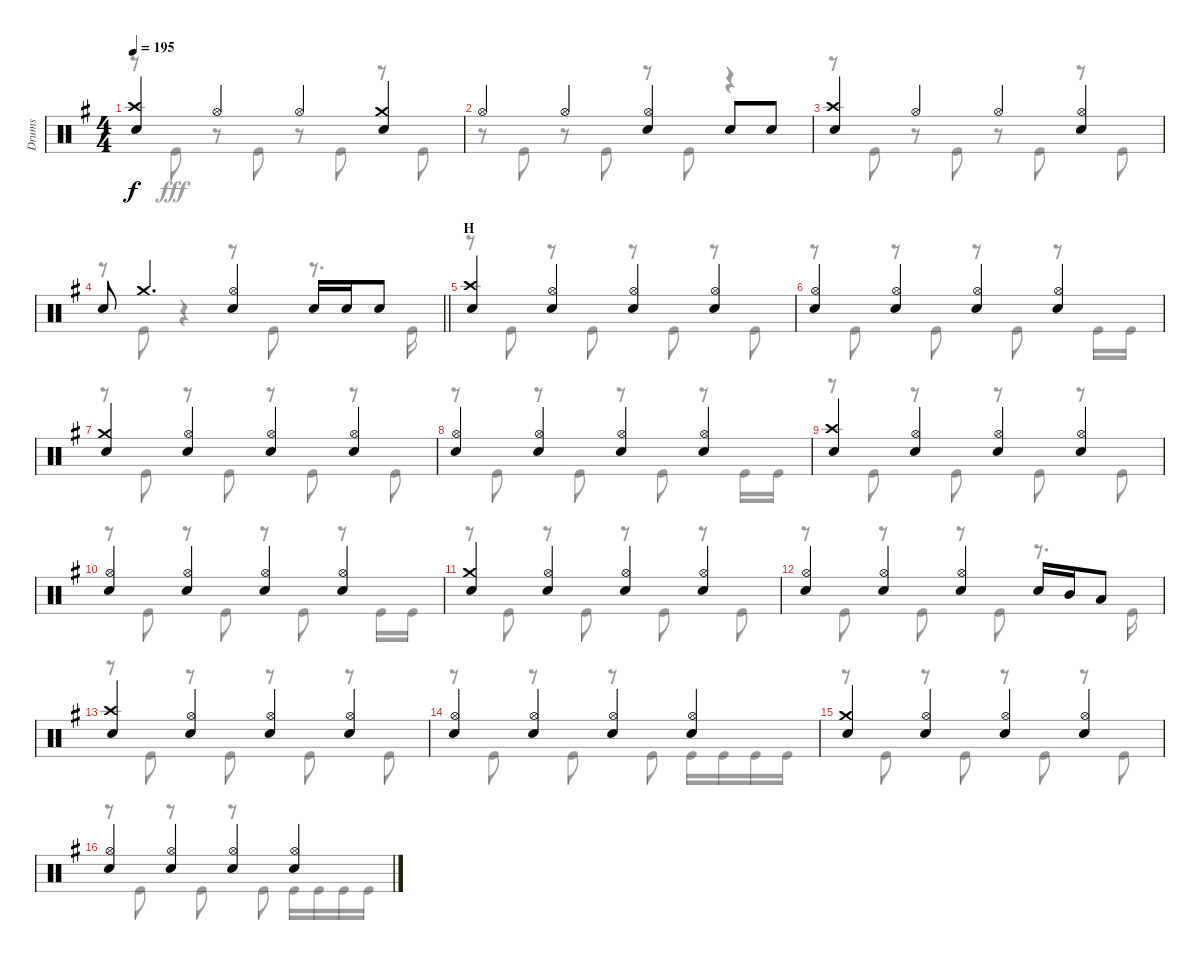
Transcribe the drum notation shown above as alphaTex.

\track ("Drums" "Drums") {instrument percussion}
\staff {score}
\articulation defaults
\voice
\ts (4 4)
\tempo 195
\clef neutral
\ks g
("Crash high (hit)" "Snare (hit) 2").4{dy f} "Hi-Hat (open)".4 "Hi-Hat (open)".4 ("Crash medium (hit)" "Snare (hit) 2").4 |
"Hi-Hat (open)".4 "Hi-Hat (open)".4 ("Hi-Hat (open)" "Snare (hit) 2").4 "Snare (hit) 2".8 "Snare (hit) 2".8 |
("Crash high (hit)" "Snare (hit) 2").4 "Hi-Hat (open)".4 "Hi-Hat (open)".4 ("Hi-Hat (open)" "Snare (hit) 2").4 |
\barLineRight lightlight "Snare (hit) 2".8 "Crash medium (hit)".4{d}
("Hi-Hat (open)" "Snare (hit) 2").4 "Snare (hit) 2".16 "Snare (hit) 2".16 "Snare (hit) 2".8 |
\section ("" "H")
("Crash high (hit)" "Snare (hit) 2").4 ("Hi-Hat (open)" "Snare (hit) 2").4 ("Hi-Hat (open)" "Snare (hit) 2").4 ("Hi-Hat (open)" "Snare (hit) 2").4 |
("Hi-Hat (open)" "Snare (hit) 2").4 ("Hi-Hat (open)" "Snare (hit) 2").4 ("Hi-Hat (open)" "Snare (hit) 2").4 ("Hi-Hat (open)" "Snare (hit) 2").4 |
("Crash medium (hit)" "Snare (hit) 2").4 ("Hi-Hat (open)" "Snare (hit) 2").4 ("Hi-Hat (open)" "Snare (hit) 2").4 ("Hi-Hat (open)" "Snare (hit) 2").4 |
("Hi-Hat (open)" "Snare (hit) 2").4 ("Hi-Hat (open)" "Snare (hit) 2").4 ("Hi-Hat (open)" "Snare (hit) 2").4 ("Hi-Hat (open)" "Snare (hit) 2").4 |
("Crash high (hit)" "Snare (hit) 2").4 ("Hi-Hat (open)" "Snare (hit) 2").4 ("Hi-Hat (open)" "Snare (hit) 2").4 ("Hi-Hat (open)" "Snare (hit) 2").4 |
("Hi-Hat (open)" "Snare (hit) 2").4 ("Hi-Hat (open)" "Snare (hit) 2").4 ("Hi-Hat (open)" "Snare (hit) 2").4 ("Hi-Hat (open)" "Snare (hit) 2").4 |
("Crash medium (hit)" "Snare (hit) 2").4 ("Hi-Hat (open)" "Snare (hit) 2").4 ("Hi-Hat (open)" "Snare (hit) 2").4 ("Hi-Hat (open)" "Snare (hit) 2").4 |
("Hi-Hat (open)" "Snare (hit) 2").4 ("Hi-Hat (open)" "Snare (hit) 2").4 ("Hi-Hat (open)" "Snare (hit) 2").4 "Snare (hit) 2".16 "Mid Tom (hit)".16 "Low Tom (hit)".8 |
("Crash high (hit)" "Snare (hit) 2").4 ("Hi-Hat (open)" "Snare (hit) 2").4 ("Hi-Hat (open)" "Snare (hit) 2").4 ("Hi-Hat (open)" "Snare (hit) 2").4 |
("Hi-Hat (open)" "Snare (hit) 2").4 ("Hi-Hat (open)" "Snare (hit) 2").4 ("Hi-Hat (open)" "Snare (hit) 2").4 ("Hi-Hat (open)" "Snare (hit) 2").4 |
("Crash medium (hit)" "Snare (hit) 2").4 ("Hi-Hat (open)" "Snare (hit) 2").4 ("Hi-Hat (open)" "Snare (hit) 2").4 ("Hi-Hat (open)" "Snare (hit) 2").4 |
("Hi-Hat (open)" "Snare (hit) 2").4 ("Hi-Hat (open)" "Snare (hit) 2").4 ("Hi-Hat (open)" "Snare (hit) 2").4 ("Hi-Hat (open)" "Snare (hit) 2").4
\voice
\clef neutral
\ottava regular
\simile none
\ks g
r.8{dy fff} "Kick (hit)".8 r.8 "Kick (hit)".8 r.8 "Kick (hit)".8 r.8 "Kick (hit)".8 |
r.8 "Kick (hit)".8 r.8 "Kick (hit)".8 r.8 "Kick (hit)".8 r.4 |
r.8 "Kick (hit)".8 r.8 "Kick (hit)".8 r.8 "Kick (hit)".8 r.8 "Kick (hit)".8 |
\barLineRight lightlight
r.8 "Kick (hit)".8 r.4 r.8 "Kick (hit)".8 r.8{d} "Kick (hit)".16 |
r.8 "Kick (hit)".8 r.8 "Kick (hit)".8 r.8 "Kick (hit)".8 r.8 "Kick (hit)".8 |
r.8 "Kick (hit)".8 r.8 "Kick (hit)".8 r.8 "Kick (hit)".8 r.8 "Kick (hit)".16 "Kick (hit)".16 |
r.8 "Kick (hit)".8 r.8 "Kick (hit)".8 r.8 "Kick (hit)".8 r.8 "Kick (hit)".8 |
r.8 "Kick (hit)".8 r.8 "Kick (hit)".8 r.8 "Kick (hit)".8 r.8 "Kick (hit)".16 "Kick (hit)".16 |
r.8 "Kick (hit)".8 r.8 "Kick (hit)".8 r.8 "Kick (hit)".8 r.8 "Kick (hit)".8 |
r.8 "Kick (hit)".8 r.8 "Kick (hit)".8 r.8 "Kick (hit)".8 r.8 "Kick (hit)".16 "Kick (hit)".16 |
r.8 "Kick (hit)".8 r.8 "Kick (hit)".8 r.8 "Kick (hit)".8 r.8 "Kick (hit)".8 |
r.8 "Kick (hit)".8 r.8 "Kick (hit)".8 r.8 "Kick (hit)".8 r.8{d} "Kick (hit)".16 |
r.8 "Kick (hit)".8 r.8 "Kick (hit)".8 r.8 "Kick (hit)".8 r.8 "Kick (hit)".8 |
r.8 "Kick (hit)".8 r.8 "Kick (hit)".8 r.8 "Kick (hit)".8 "Kick (hit)".16 "Kick (hit)".16 "Kick (hit)".16 "Kick (hit)".16 |
r.8 "Kick (hit)".8 r.8 "Kick (hit)".8 r.8 "Kick (hit)".8 r.8 "Kick (hit)".8 |
r.8 "Kick (hit)".8 r.8 "Kick (hit)".8 r.8 "Kick (hit)".8 "Kick (hit)".16 "Kick (hit)".16 "Kick (hit)".16 "Kick (hit)".16
